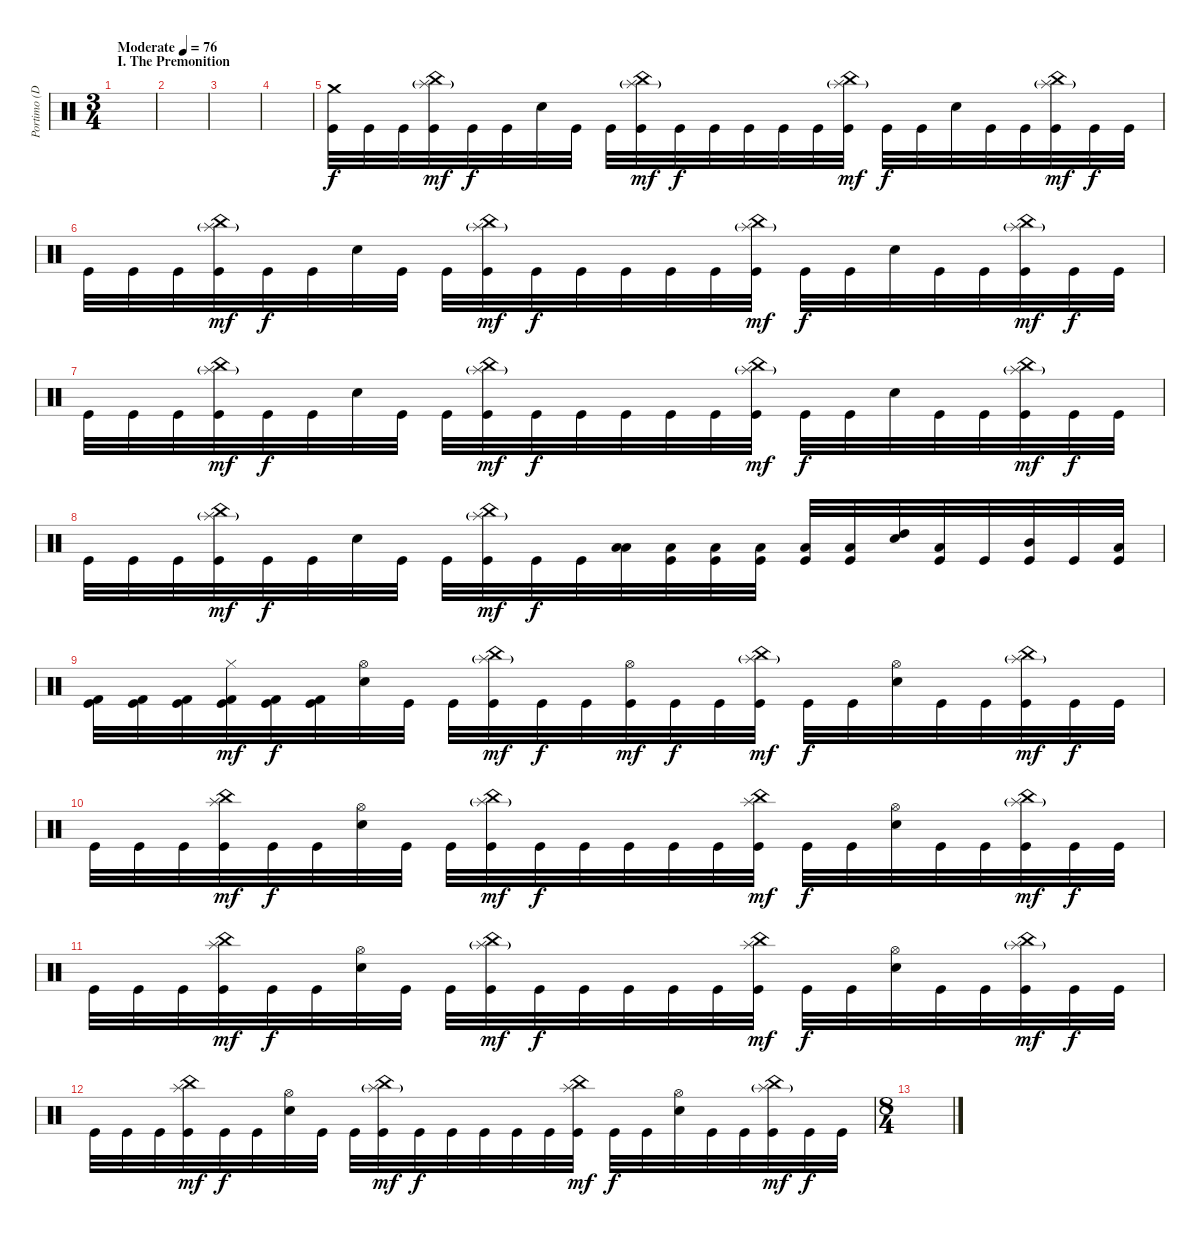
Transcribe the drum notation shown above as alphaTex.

\track ("Portimo (Drums)" "Portimo (D") {mute instrument percussion}
\staff {score}
\articulation defaults
\ts (3 4)
\section ("" "I. The Premonition")
\tempo (76 "Moderate")
\clef neutral
\ks c
|
|
|
|
("Crash medium (hit)" "Kick (hit)").32 "Kick (hit)".32 "Kick (hit)".32 ("China (hit)" "Splash (hit)"{g} "Kick (hit)").32{dy mf} "Kick (hit)".32{dy f} "Kick (hit)".32 "Snare (hit) 2".32 "Kick (hit)".32 "Kick (hit)".32 ("China (hit)" "Splash (hit)"{g} "Kick (hit)").32{dy mf} "Kick (hit)".32{dy f} "Kick (hit)".32 "Kick (hit)".32 "Kick (hit)".32 "Kick (hit)".32 ("China (hit)" "Splash (hit)"{g} "Kick (hit)").32{dy mf} "Kick (hit)".32{dy f} "Kick (hit)".32 "Snare (hit) 2".32 "Kick (hit)".32 "Kick (hit)".32 ("China (hit)" "Splash (hit)"{g} "Kick (hit)").32{dy mf} "Kick (hit)".32{dy f} "Kick (hit)".32 |
"Kick (hit)".32 "Kick (hit)".32 "Kick (hit)".32 ("China (hit)" "Splash (hit)"{g} "Kick (hit)").32{dy mf} "Kick (hit)".32{dy f} "Kick (hit)".32 "Snare (hit) 2".32 "Kick (hit)".32 "Kick (hit)".32 ("China (hit)" "Splash (hit)"{g} "Kick (hit)").32{dy mf} "Kick (hit)".32{dy f} "Kick (hit)".32 "Kick (hit)".32 "Kick (hit)".32 "Kick (hit)".32 ("China (hit)" "Splash (hit)"{g} "Kick (hit)").32{dy mf} "Kick (hit)".32{dy f} "Kick (hit)".32 "Snare (hit) 2".32 "Kick (hit)".32 "Kick (hit)".32 ("China (hit)" "Splash (hit)"{g} "Kick (hit)").32{dy mf} "Kick (hit)".32{dy f} "Kick (hit)".32 |
"Kick (hit)".32 "Kick (hit)".32 "Kick (hit)".32 ("China (hit)" "Splash (hit)"{g} "Kick (hit)").32{dy mf} "Kick (hit)".32{dy f} "Kick (hit)".32 "Snare (hit) 2".32 "Kick (hit)".32 "Kick (hit)".32 ("China (hit)" "Splash (hit)"{g} "Kick (hit)").32{dy mf} "Kick (hit)".32{dy f} "Kick (hit)".32 "Kick (hit)".32 "Kick (hit)".32 "Kick (hit)".32 ("China (hit)" "Splash (hit)"{g} "Kick (hit)").32{dy mf} "Kick (hit)".32{dy f} "Kick (hit)".32 "Snare (hit) 2".32 "Kick (hit)".32 "Kick (hit)".32 ("China (hit)" "Splash (hit)"{g} "Kick (hit)").32{dy mf} "Kick (hit)".32{dy f} "Kick (hit)".32 |
"Kick (hit)".32 "Kick (hit)".32 "Kick (hit)".32 ("China (hit)" "Splash (hit)"{g} "Kick (hit)").32{dy mf} "Kick (hit)".32{dy f} "Kick (hit)".32 "Snare (hit) 2".32 "Kick (hit)".32 "Kick (hit)".32 ("China (hit)" "Splash (hit)"{g} "Kick (hit)").32{dy mf} "Kick (hit)".32{dy f} "Kick (hit)".32 ("Low Tom (hit)" "Low Floor Tom (hit)").32 ("Low Tom (hit)" "Kick (hit)").32 ("Low Tom (hit)" "Kick (hit)").32 ("Low Tom (hit)" "Kick (hit)").32 ("Low Tom (hit)" "Kick (hit)").32 ("Low Tom (hit)" "Kick (hit)").32 ("High Tom (hit)" "Snare (hit) 2").32 ("Low Tom (hit)" "Kick (hit)").32 "Kick (hit)".32 ("Mid Tom (hit)" "Kick (hit)").32 "Kick (hit)".32 ("Low Tom (hit)" "Kick (hit)").32 |
("Kick (hit) 2" "Kick (hit)").32 ("Kick (hit) 2" "Kick (hit)").32 ("Kick (hit) 2" "Kick (hit)").32 ("Hi-Hat (closed)" "Kick (hit) 2" "Kick (hit)").32{dy mf} ("Kick (hit) 2" "Kick (hit)").32{dy f} ("Kick (hit) 2" "Kick (hit)").32 ("Hi-Hat (open)" "Snare (hit) 2").32 "Kick (hit)".32 "Kick (hit)".32 ("China (hit)" "Splash (hit)"{g} "Kick (hit)").32{dy mf} "Kick (hit)".32{dy f} "Kick (hit)".32 ("Hi-Hat (open)" "Kick (hit)").32{dy mf} "Kick (hit)".32{dy f} "Kick (hit)".32 ("China (hit)" "Splash (hit)"{g} "Kick (hit)").32{dy mf} "Kick (hit)".32{dy f} "Kick (hit)".32 ("Hi-Hat (open)" "Snare (hit) 2").32 "Kick (hit)".32 "Kick (hit)".32 ("China (hit)" "Splash (hit)"{g} "Kick (hit)").32{dy mf} "Kick (hit)".32{dy f} "Kick (hit)".32 |
"Kick (hit)".32 "Kick (hit)".32 "Kick (hit)".32 ("China (hit)" "Splash (hit)" "Kick (hit)").32{dy mf} "Kick (hit)".32{dy f} "Kick (hit)".32 ("Hi-Hat (open)" "Snare (hit) 2").32 "Kick (hit)".32 "Kick (hit)".32 ("China (hit)" "Splash (hit)"{g} "Kick (hit)").32{dy mf} "Kick (hit)".32{dy f} "Kick (hit)".32 "Kick (hit)".32 "Kick (hit)".32 "Kick (hit)".32 ("China (hit)" "Splash (hit)" "Kick (hit)").32{dy mf} "Kick (hit)".32{dy f} "Kick (hit)".32 ("Hi-Hat (open)" "Snare (hit) 2").32 "Kick (hit)".32 "Kick (hit)".32 ("China (hit)" "Splash (hit)"{g} "Kick (hit)").32{dy mf} "Kick (hit)".32{dy f} "Kick (hit)".32 |
"Kick (hit)".32 "Kick (hit)".32 "Kick (hit)".32 ("China (hit)" "Splash (hit)" "Kick (hit)").32{dy mf} "Kick (hit)".32{dy f} "Kick (hit)".32 ("Hi-Hat (open)" "Snare (hit) 2").32 "Kick (hit)".32 "Kick (hit)".32 ("China (hit)" "Splash (hit)"{g} "Kick (hit)").32{dy mf} "Kick (hit)".32{dy f} "Kick (hit)".32 "Kick (hit)".32 "Kick (hit)".32 "Kick (hit)".32 ("China (hit)" "Splash (hit)" "Kick (hit)").32{dy mf} "Kick (hit)".32{dy f} "Kick (hit)".32 ("Hi-Hat (open)" "Snare (hit) 2").32 "Kick (hit)".32 "Kick (hit)".32 ("China (hit)" "Splash (hit)"{g} "Kick (hit)").32{dy mf} "Kick (hit)".32{dy f} "Kick (hit)".32 |
"Kick (hit)".32 "Kick (hit)".32 "Kick (hit)".32 ("China (hit)" "Splash (hit)" "Kick (hit)").32{dy mf} "Kick (hit)".32{dy f} "Kick (hit)".32 ("Hi-Hat (open)" "Snare (hit) 2").32 "Kick (hit)".32 "Kick (hit)".32 ("China (hit)" "Splash (hit)"{g} "Kick (hit)").32{dy mf} "Kick (hit)".32{dy f} "Kick (hit)".32 "Kick (hit)".32 "Kick (hit)".32 "Kick (hit)".32 ("China (hit)" "Splash (hit)" "Kick (hit)").32{dy mf} "Kick (hit)".32{dy f} "Kick (hit)".32 ("Hi-Hat (open)" "Snare (hit) 2").32 "Kick (hit)".32 "Kick (hit)".32 ("China (hit)" "Splash (hit)"{g} "Kick (hit)").32{dy mf} "Kick (hit)".32{dy f} "Kick (hit)".32 |
\ts (8 4)
